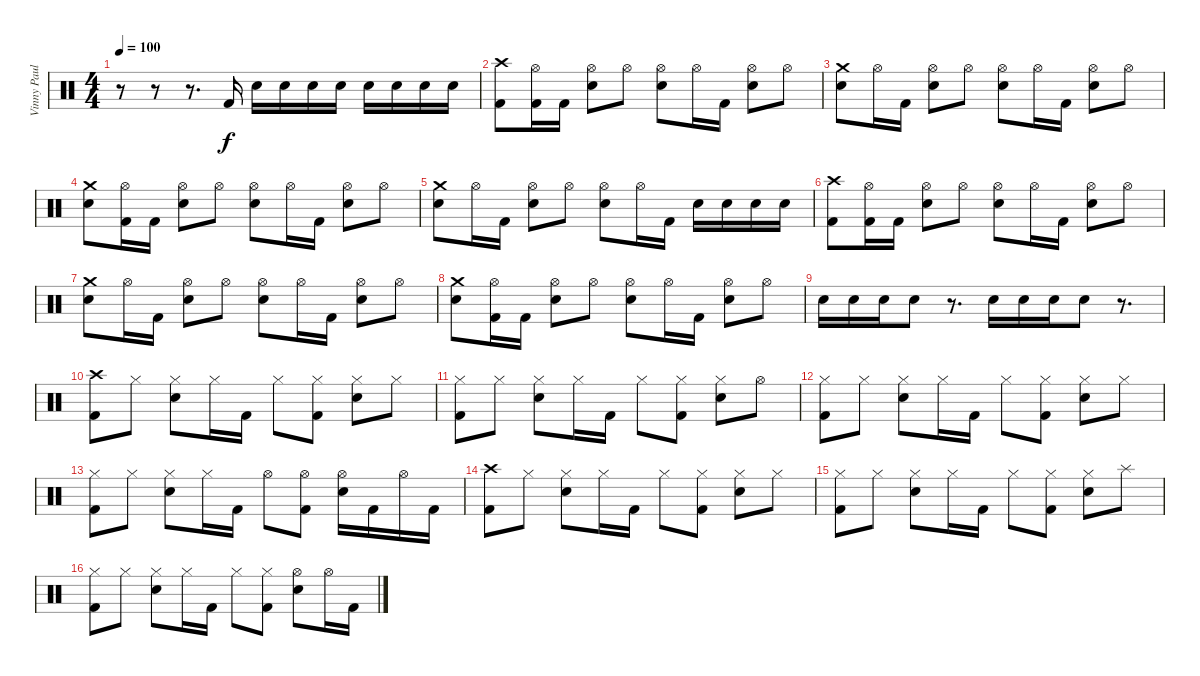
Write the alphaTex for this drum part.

\track ("Vinny Paul" "Vinny Paul") {instrument percussion}
\staff {score}
\articulation defaults
\ts (4 4)
\tempo 100
\clef neutral
\ks c
r.8{dy f} r.8 r.8{d} "Kick (hit) 2".16 "Snare (hit) 2".16 "Snare (hit) 2".16 "Snare (hit) 2".16 "Snare (hit) 2".16 "Snare (hit) 2".16 "Snare (hit) 2".16 "Snare (hit) 2".16 "Snare (hit) 2".16 |
("Crash high (hit)" "Kick (hit) 2").8 ("Hi-Hat (open)" "Kick (hit) 2").16 "Kick (hit) 2".16 ("Hi-Hat (open)" "Snare (hit) 2").8 "Hi-Hat (open)".8 ("Hi-Hat (open)" "Snare (hit) 2").8 "Hi-Hat (open)".16 "Kick (hit) 2".16 ("Hi-Hat (open)" "Snare (hit) 2").8 "Hi-Hat (open)".8 |
("Crash medium (hit)" "Snare (hit) 2").8 "Hi-Hat (open)".16 "Kick (hit) 2".16 ("Hi-Hat (open)" "Snare (hit) 2").8 "Hi-Hat (open)".8 ("Hi-Hat (open)" "Snare (hit) 2").8 "Hi-Hat (open)".16 "Kick (hit) 2".16 ("Hi-Hat (open)" "Snare (hit) 2").8 "Hi-Hat (open)".8 |
("Crash medium (hit)" "Snare (hit) 2").8 ("Hi-Hat (open)" "Kick (hit) 2").16 "Kick (hit) 2".16 ("Hi-Hat (open)" "Snare (hit) 2").8 "Hi-Hat (open)".8 ("Hi-Hat (open)" "Snare (hit) 2").8 "Hi-Hat (open)".16 "Kick (hit) 2".16 ("Hi-Hat (open)" "Snare (hit) 2").8 "Hi-Hat (open)".8 |
("Crash medium (hit)" "Snare (hit) 2").8 "Hi-Hat (open)".16 "Kick (hit) 2".16 ("Hi-Hat (open)" "Snare (hit) 2").8 "Hi-Hat (open)".8 ("Hi-Hat (open)" "Snare (hit) 2").8 "Hi-Hat (open)".16 "Kick (hit) 2".16 "Snare (hit) 2".16 "Snare (hit) 2".16 "Snare (hit) 2".16 "Snare (hit) 2".16 |
("Crash high (hit)" "Kick (hit) 2").8 ("Hi-Hat (open)" "Kick (hit) 2").16 "Kick (hit) 2".16 ("Hi-Hat (open)" "Snare (hit) 2").8 "Hi-Hat (open)".8 ("Hi-Hat (open)" "Snare (hit) 2").8 "Hi-Hat (open)".16 "Kick (hit) 2".16 ("Hi-Hat (open)" "Snare (hit) 2").8 "Hi-Hat (open)".8 |
("Crash medium (hit)" "Snare (hit) 2").8 "Hi-Hat (open)".16 "Kick (hit) 2".16 ("Hi-Hat (open)" "Snare (hit) 2").8 "Hi-Hat (open)".8 ("Hi-Hat (open)" "Snare (hit) 2").8 "Hi-Hat (open)".16 "Kick (hit) 2".16 ("Hi-Hat (open)" "Snare (hit) 2").8 "Hi-Hat (open)".8 |
("Crash medium (hit)" "Snare (hit) 2").8 ("Hi-Hat (open)" "Kick (hit) 2").16 "Kick (hit) 2".16 ("Hi-Hat (open)" "Snare (hit) 2").8 "Hi-Hat (open)".8 ("Hi-Hat (open)" "Snare (hit) 2").8 "Hi-Hat (open)".16 "Kick (hit) 2".16 ("Hi-Hat (open)" "Snare (hit) 2").8 "Hi-Hat (open)".8 |
"Snare (hit) 2".16 "Snare (hit) 2".16 "Snare (hit) 2".16 "Snare (hit) 2".8 r.8{d} "Snare (hit) 2".16 "Snare (hit) 2".16 "Snare (hit) 2".16 "Snare (hit) 2".8 r.8{d} |
("Crash high (hit)" "Kick (hit) 2").8 "Hi-Hat (closed)".8 ("Hi-Hat (closed)" "Snare (hit) 2").8 "Hi-Hat (closed)".16 "Kick (hit) 2".16 "Hi-Hat (closed)".8 ("Hi-Hat (closed)" "Kick (hit) 2").8 ("Hi-Hat (closed)" "Snare (hit) 2").8 "Hi-Hat (closed)".8 |
("Hi-Hat (closed)" "Kick (hit) 2").8 "Hi-Hat (closed)".8 ("Hi-Hat (closed)" "Snare (hit) 2").8 "Hi-Hat (closed)".16 "Kick (hit) 2".16 "Hi-Hat (closed)".8 ("Hi-Hat (closed)" "Kick (hit) 2").8 ("Hi-Hat (closed)" "Snare (hit) 2").8 "Hi-Hat (open)".8 |
("Hi-Hat (closed)" "Kick (hit) 2").8 "Hi-Hat (closed)".8 ("Hi-Hat (closed)" "Snare (hit) 2").8 "Hi-Hat (closed)".16 "Kick (hit) 2".16 "Hi-Hat (closed)".8 ("Hi-Hat (closed)" "Kick (hit) 2").8 ("Hi-Hat (closed)" "Snare (hit) 2").8 "Hi-Hat (closed)".8 |
("Hi-Hat (closed)" "Kick (hit) 2").8 "Hi-Hat (closed)".8 ("Hi-Hat (closed)" "Snare (hit) 2").8 "Hi-Hat (closed)".16 "Kick (hit) 2".16 "Hi-Hat (open)".8 ("Hi-Hat (open)" "Kick (hit) 2").8 ("Hi-Hat (open)" "Snare (hit) 2").16 "Kick (hit) 2".16 "Hi-Hat (open)".16 "Kick (hit) 2".16 |
("Crash high (hit)" "Kick (hit) 2").8 "Hi-Hat (closed)".8 ("Hi-Hat (closed)" "Snare (hit) 2").8 "Hi-Hat (closed)".16 "Kick (hit) 2".16 "Hi-Hat (closed)".8 ("Hi-Hat (closed)" "Kick (hit) 2").8 ("Hi-Hat (closed)" "Snare (hit) 2").8 "Hi-Hat (closed)".8 |
("Hi-Hat (closed)" "Kick (hit) 2").8 "Hi-Hat (closed)".8 ("Hi-Hat (closed)" "Snare (hit) 2").8 "Hi-Hat (closed)".16 "Kick (hit) 2".16 "Hi-Hat (closed)".8 ("Hi-Hat (closed)" "Kick (hit) 2").8 ("Hi-Hat (closed)" "Snare (hit) 2").8 "Splash (hit)".8 |
("Hi-Hat (closed)" "Kick (hit) 2").8 "Hi-Hat (closed)".8 ("Hi-Hat (closed)" "Snare (hit) 2").8 "Hi-Hat (closed)".16 "Kick (hit) 2".16 "Hi-Hat (closed)".8 ("Hi-Hat (closed)" "Kick (hit) 2").8 ("Hi-Hat (open)" "Snare (hit) 2").8 "Hi-Hat (open)".16 "Kick (hit) 2".16
